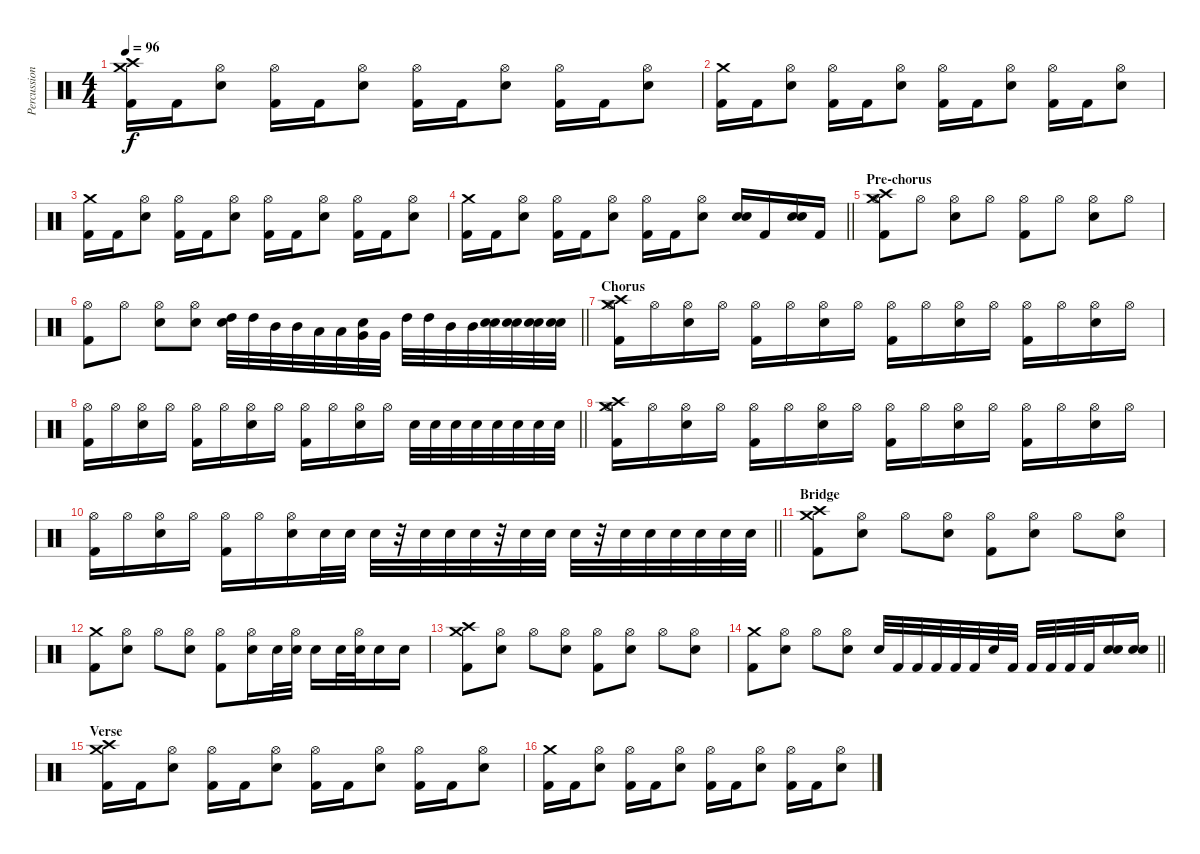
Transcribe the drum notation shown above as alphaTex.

\track ("Percussion" "Percussion") {instrument percussion}
\staff {score}
\articulation defaults
\ts (4 4)
\tempo 96
\clef neutral
\ks c
("Crash medium (hit)" "Crash high (hit)" "Kick (hit) 2").16{dy f} "Kick (hit) 2".16 ("Hi-Hat (open)" "Electric Snare (hit)").8 ("Hi-Hat (open)" "Kick (hit) 2").16 "Kick (hit) 2".16 ("Hi-Hat (open)" "Electric Snare (hit)").8 ("Hi-Hat (open)" "Kick (hit) 2").16 "Kick (hit) 2".16 ("Hi-Hat (open)" "Electric Snare (hit)").8 ("Hi-Hat (open)" "Kick (hit) 2").16 "Kick (hit) 2".16 ("Hi-Hat (open)" "Electric Snare (hit)").8 |
("Crash medium (hit)" "Kick (hit) 2").16 "Kick (hit) 2".16 ("Hi-Hat (open)" "Electric Snare (hit)").8 ("Hi-Hat (open)" "Kick (hit) 2").16 "Kick (hit) 2".16 ("Hi-Hat (open)" "Electric Snare (hit)").8 ("Hi-Hat (open)" "Kick (hit) 2").16 "Kick (hit) 2".16 ("Hi-Hat (open)" "Electric Snare (hit)").8 ("Hi-Hat (open)" "Kick (hit) 2").16 "Kick (hit) 2".16 ("Hi-Hat (open)" "Electric Snare (hit)").8 |
("Crash medium (hit)" "Kick (hit) 2").16 "Kick (hit) 2".16 ("Hi-Hat (open)" "Electric Snare (hit)").8 ("Hi-Hat (open)" "Kick (hit) 2").16 "Kick (hit) 2".16 ("Hi-Hat (open)" "Electric Snare (hit)").8 ("Hi-Hat (open)" "Kick (hit) 2").16 "Kick (hit) 2".16 ("Hi-Hat (open)" "Electric Snare (hit)").8 ("Hi-Hat (open)" "Kick (hit) 2").16 "Kick (hit) 2".16 ("Hi-Hat (open)" "Electric Snare (hit)").8 |
\barLineRight lightlight
("Crash medium (hit)" "Kick (hit) 2").16 "Kick (hit) 2".16 ("Hi-Hat (open)" "Electric Snare (hit)").8 ("Hi-Hat (open)" "Kick (hit) 2").16 "Kick (hit) 2".16 ("Hi-Hat (open)" "Electric Snare (hit)").8 ("Hi-Hat (open)" "Kick (hit) 2").16 "Kick (hit) 2".16 ("Hi-Hat (open)" "Electric Snare (hit)").8 ("Electric Snare (hit)" "Electric Snare (hit)").16 "Kick (hit) 2".16 ("Electric Snare (hit)" "Electric Snare (hit)").16 "Kick (hit) 2".16 |
\section ("" "Pre-chorus")
("Crash medium (hit)" "Crash high (hit)" "Hi-Hat (open)" "Kick (hit) 2").8 "Hi-Hat (open)".8 ("Hi-Hat (open)" "Electric Snare (hit)").8 "Hi-Hat (open)".8 ("Hi-Hat (open)" "Kick (hit) 2").8 "Hi-Hat (open)".8 ("Hi-Hat (open)" "Electric Snare (hit)").8 "Hi-Hat (open)".8 |
\barLineRight lightlight
("Hi-Hat (open)" "Kick (hit) 2").8 "Hi-Hat (open)".8 ("Hi-Hat (open)" "Electric Snare (hit)").8 ("Hi-Hat (open)" "Electric Snare (hit)").8 ("Electric Snare (hit)" "High Tom (hit)").32 "High Tom (hit)".32 "Mid Tom (hit)".32 "Mid Tom (hit)".32 "Low Tom (hit)".32 "Low Tom (hit)".32 ("Electric Snare (hit)" "Very Low Tom (hit)").32 "Very Low Tom (hit)".32 "High Tom (hit)".32 "High Tom (hit)".32 "Mid Tom (hit)".32 "Mid Tom (hit)".32 ("Electric Snare (hit)" "Electric Snare (hit)").32 ("Electric Snare (hit)" "Electric Snare (hit)").32 ("Electric Snare (hit)" "Electric Snare (hit)").32 ("Electric Snare (hit)" "Electric Snare (hit)").32 |
\section ("" "Chorus")
("Crash medium (hit)" "Crash high (hit)" "Hi-Hat (open)" "Kick (hit) 2").16 "Hi-Hat (open)".16 ("Hi-Hat (open)" "Electric Snare (hit)").16 "Hi-Hat (open)".16 ("Hi-Hat (open)" "Kick (hit) 2").16 "Hi-Hat (open)".16 ("Hi-Hat (open)" "Electric Snare (hit)").16 "Hi-Hat (open)".16 ("Hi-Hat (open)" "Kick (hit) 2").16 "Hi-Hat (open)".16 ("Hi-Hat (open)" "Electric Snare (hit)").16 "Hi-Hat (open)".16 ("Hi-Hat (open)" "Kick (hit) 2").16 "Hi-Hat (open)".16 ("Hi-Hat (open)" "Electric Snare (hit)").16 "Hi-Hat (open)".16 |
\barLineRight lightlight
("Hi-Hat (open)" "Kick (hit) 2").16 "Hi-Hat (open)".16 ("Hi-Hat (open)" "Electric Snare (hit)").16 "Hi-Hat (open)".16 ("Hi-Hat (open)" "Kick (hit) 2").16 "Hi-Hat (open)".16 ("Hi-Hat (open)" "Electric Snare (hit)").16 "Hi-Hat (open)".16 ("Hi-Hat (open)" "Kick (hit) 2").16 "Hi-Hat (open)".16 ("Hi-Hat (open)" "Electric Snare (hit)").16 "Hi-Hat (open)".16 "Electric Snare (hit)".32 "Electric Snare (hit)".32 "Electric Snare (hit)".32 "Electric Snare (hit)".32 "Electric Snare (hit)".32 "Electric Snare (hit)".32 "Electric Snare (hit)".32 "Electric Snare (hit)".32 |
("Crash medium (hit)" "Crash high (hit)" "Hi-Hat (open)" "Kick (hit) 2").16 "Hi-Hat (open)".16 ("Hi-Hat (open)" "Electric Snare (hit)").16 "Hi-Hat (open)".16 ("Hi-Hat (open)" "Kick (hit) 2").16 "Hi-Hat (open)".16 ("Hi-Hat (open)" "Electric Snare (hit)").16 "Hi-Hat (open)".16 ("Hi-Hat (open)" "Kick (hit) 2").16 "Hi-Hat (open)".16 ("Hi-Hat (open)" "Electric Snare (hit)").16 "Hi-Hat (open)".16 ("Hi-Hat (open)" "Kick (hit) 2").16 "Hi-Hat (open)".16 ("Hi-Hat (open)" "Electric Snare (hit)").16 "Hi-Hat (open)".16 |
\barLineRight lightlight
("Hi-Hat (open)" "Kick (hit) 2").16 "Hi-Hat (open)".16 ("Hi-Hat (open)" "Electric Snare (hit)").16 "Hi-Hat (open)".16 ("Hi-Hat (open)" "Kick (hit) 2").16 "Hi-Hat (open)".16 ("Hi-Hat (open)" "Electric Snare (hit)").16 "Electric Snare (hit)".32 "Electric Snare (hit)".32 "Electric Snare (hit)".32 r.32 "Electric Snare (hit)".32 "Electric Snare (hit)".32 "Electric Snare (hit)".32 r.32 "Electric Snare (hit)".32 "Electric Snare (hit)".32 "Electric Snare (hit)".32 r.32 "Electric Snare (hit)".32 "Electric Snare (hit)".32 "Electric Snare (hit)".32 "Electric Snare (hit)".32 "Electric Snare (hit)".32 "Electric Snare (hit)".32 |
\section ("" "Bridge")
("Crash medium (hit)" "Crash high (hit)" "Kick (hit) 2").8 ("Hi-Hat (open)" "Electric Snare (hit)").8 "Hi-Hat (open)".8 ("Hi-Hat (open)" "Electric Snare (hit)").8 ("Hi-Hat (open)" "Kick (hit) 2").8 ("Hi-Hat (open)" "Electric Snare (hit)").8 "Hi-Hat (open)".8 ("Hi-Hat (open)" "Electric Snare (hit)").8 |
("Crash medium (hit)" "Kick (hit) 2").8 ("Hi-Hat (open)" "Electric Snare (hit)").8 "Hi-Hat (open)".8 ("Hi-Hat (open)" "Electric Snare (hit)").8 ("Hi-Hat (open)" "Kick (hit) 2").8 ("Hi-Hat (open)" "Electric Snare (hit)").16 "Electric Snare (hit)".32 ("Hi-Hat (open)" "Electric Snare (hit)").32 "Electric Snare (hit)".16 "Electric Snare (hit)".32 ("Hi-Hat (open)" "Electric Snare (hit)").32 "Electric Snare (hit)".16 "Electric Snare (hit)".16 |
("Crash medium (hit)" "Crash high (hit)" "Kick (hit) 2").8 ("Hi-Hat (open)" "Electric Snare (hit)").8 "Hi-Hat (open)".8 ("Hi-Hat (open)" "Electric Snare (hit)").8 ("Hi-Hat (open)" "Kick (hit) 2").8 ("Hi-Hat (open)" "Electric Snare (hit)").8 "Hi-Hat (open)".8 ("Hi-Hat (open)" "Electric Snare (hit)").8 |
\barLineRight lightlight
("Crash medium (hit)" "Kick (hit) 2").8 ("Hi-Hat (open)" "Electric Snare (hit)").8 "Hi-Hat (open)".8 ("Hi-Hat (open)" "Electric Snare (hit)").8 "Electric Snare (hit)".32 "Kick (hit) 2".32 "Kick (hit) 2".32 "Kick (hit) 2".32 "Kick (hit) 2".32 "Kick (hit) 2".32 "Electric Snare (hit)".32 "Kick (hit) 2".32 "Kick (hit) 2".32 "Kick (hit) 2".32 "Kick (hit) 2".32 "Kick (hit) 2".32 ("Electric Snare (hit)" "Electric Snare (hit)").16 ("Electric Snare (hit)" "Electric Snare (hit)").16 |
\section ("" "Verse")
("Crash medium (hit)" "Crash high (hit)" "Kick (hit) 2").16 "Kick (hit) 2".16 ("Hi-Hat (open)" "Electric Snare (hit)").8 ("Hi-Hat (open)" "Kick (hit) 2").16 "Kick (hit) 2".16 ("Hi-Hat (open)" "Electric Snare (hit)").8 ("Hi-Hat (open)" "Kick (hit) 2").16 "Kick (hit) 2".16 ("Hi-Hat (open)" "Electric Snare (hit)").8 ("Hi-Hat (open)" "Kick (hit) 2").16 "Kick (hit) 2".16 ("Hi-Hat (open)" "Electric Snare (hit)").8 |
("Crash medium (hit)" "Kick (hit) 2").16 "Kick (hit) 2".16 ("Hi-Hat (open)" "Electric Snare (hit)").8 ("Hi-Hat (open)" "Kick (hit) 2").16 "Kick (hit) 2".16 ("Hi-Hat (open)" "Electric Snare (hit)").8 ("Hi-Hat (open)" "Kick (hit) 2").16 "Kick (hit) 2".16 ("Hi-Hat (open)" "Electric Snare (hit)").8 ("Hi-Hat (open)" "Kick (hit) 2").16 "Kick (hit) 2".16 ("Hi-Hat (open)" "Electric Snare (hit)").8
